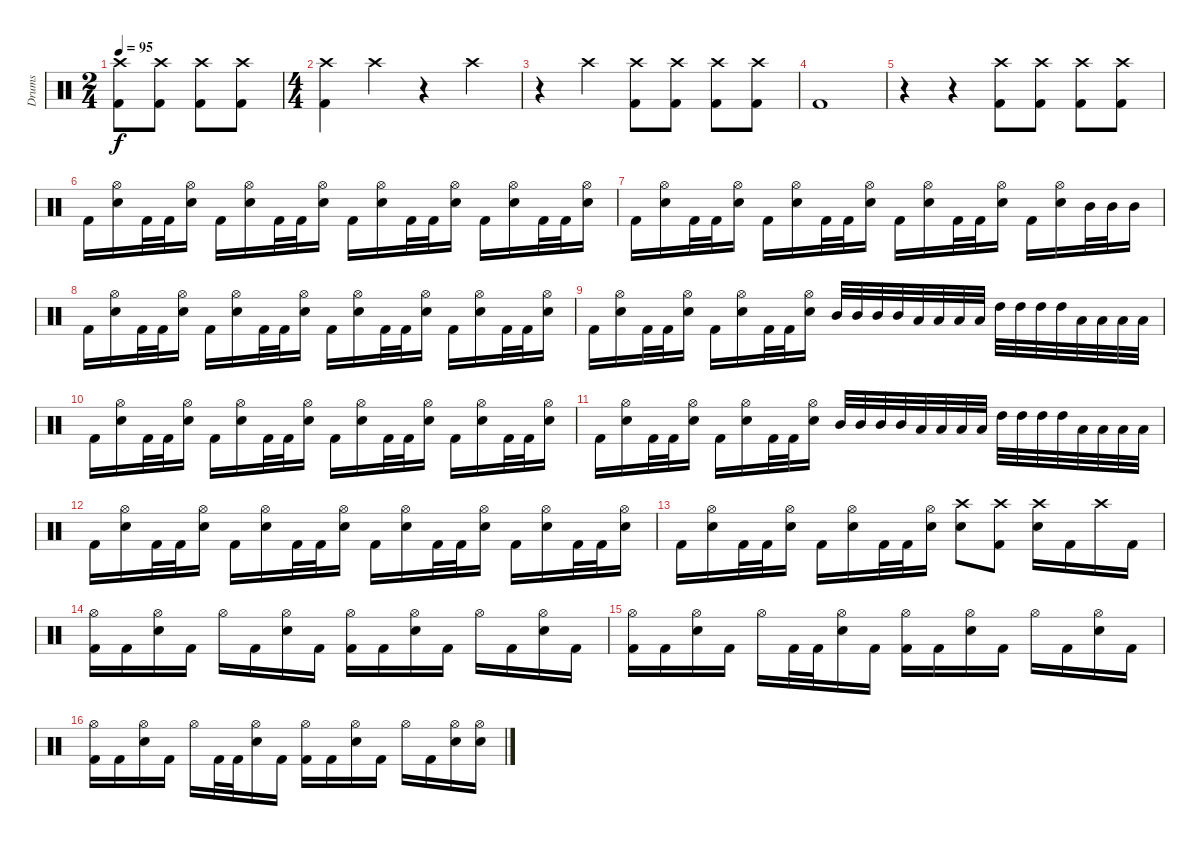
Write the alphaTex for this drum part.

\track ("Drums" "Drums") {instrument percussion}
\staff {score}
\articulation defaults
\ts (2 4)
\tempo 95
\clef neutral
\ks c
("Crash high (hit)" "Kick (hit) 2").8{dy f} ("Crash high (hit)" "Kick (hit) 2").8 ("Crash high (hit)" "Kick (hit) 2").8 ("Crash high (hit)" "Kick (hit) 2").8 |
\ts (4 4)
("Crash high (hit)" "Kick (hit) 2").4 "Crash high (hit)".4 r.4 "Crash high (hit)".4 |
r.4 "Crash high (hit)".4 ("Crash high (hit)" "Kick (hit) 2").8 ("Crash high (hit)" "Kick (hit) 2").8 ("Crash high (hit)" "Kick (hit) 2").8 ("Crash high (hit)" "Kick (hit) 2").8 |
"Kick (hit) 2".1 |
r.4 r.4 ("Crash high (hit)" "Kick (hit) 2").8 ("Crash high (hit)" "Kick (hit) 2").8 ("Crash high (hit)" "Kick (hit) 2").8 ("Crash high (hit)" "Kick (hit) 2").8 |
"Kick (hit) 2".16 ("Hi-Hat (open)" "Electric Snare (hit)").16 "Kick (hit) 2".32 "Kick (hit) 2".32 ("Hi-Hat (open)" "Electric Snare (hit)").16 "Kick (hit) 2".16 ("Hi-Hat (open)" "Electric Snare (hit)").16 "Kick (hit) 2".32 "Kick (hit) 2".32 ("Hi-Hat (open)" "Electric Snare (hit)").16 "Kick (hit) 2".16 ("Hi-Hat (open)" "Electric Snare (hit)").16 "Kick (hit) 2".32 "Kick (hit) 2".32 ("Hi-Hat (open)" "Electric Snare (hit)").16 "Kick (hit) 2".16 ("Hi-Hat (open)" "Electric Snare (hit)").16 "Kick (hit) 2".32 "Kick (hit) 2".32 ("Hi-Hat (open)" "Electric Snare (hit)").16 |
"Kick (hit) 2".16 ("Hi-Hat (open)" "Electric Snare (hit)").16 "Kick (hit) 2".32 "Kick (hit) 2".32 ("Hi-Hat (open)" "Electric Snare (hit)").16 "Kick (hit) 2".16 ("Hi-Hat (open)" "Electric Snare (hit)").16 "Kick (hit) 2".32 "Kick (hit) 2".32 ("Hi-Hat (open)" "Electric Snare (hit)").16 "Kick (hit) 2".16 ("Hi-Hat (open)" "Electric Snare (hit)").16 "Kick (hit) 2".32 "Kick (hit) 2".32 ("Hi-Hat (open)" "Electric Snare (hit)").16 "Kick (hit) 2".16 ("Hi-Hat (open)" "Electric Snare (hit)").16 "Mid Tom (hit)".32 "Mid Tom (hit)".32 "Mid Tom (hit)".16 |
"Kick (hit) 2".16 ("Hi-Hat (open)" "Electric Snare (hit)").16 "Kick (hit) 2".32 "Kick (hit) 2".32 ("Hi-Hat (open)" "Electric Snare (hit)").16 "Kick (hit) 2".16 ("Hi-Hat (open)" "Electric Snare (hit)").16 "Kick (hit) 2".32 "Kick (hit) 2".32 ("Hi-Hat (open)" "Electric Snare (hit)").16 "Kick (hit) 2".16 ("Hi-Hat (open)" "Electric Snare (hit)").16 "Kick (hit) 2".32 "Kick (hit) 2".32 ("Hi-Hat (open)" "Electric Snare (hit)").16 "Kick (hit) 2".16 ("Hi-Hat (open)" "Electric Snare (hit)").16 "Kick (hit) 2".32 "Kick (hit) 2".32 ("Hi-Hat (open)" "Electric Snare (hit)").16 |
"Kick (hit) 2".16 ("Hi-Hat (open)" "Electric Snare (hit)").16 "Kick (hit) 2".32 "Kick (hit) 2".32 ("Hi-Hat (open)" "Electric Snare (hit)").16 "Kick (hit) 2".16 ("Hi-Hat (open)" "Electric Snare (hit)").16 "Kick (hit) 2".32 "Kick (hit) 2".32 ("Hi-Hat (open)" "Electric Snare (hit)").16 "Mid Tom (hit)".32 "Mid Tom (hit)".32 "Mid Tom (hit)".32 "Mid Tom (hit)".32 "Low Tom (hit)".32 "Low Tom (hit)".32 "Low Tom (hit)".32 "Low Tom (hit)".32 "High Tom (hit)".32 "High Tom (hit)".32 "High Tom (hit)".32 "High Tom (hit)".32 "Low Tom (hit)".32 "Low Tom (hit)".32 "Low Tom (hit)".32 "Low Tom (hit)".32 |
"Kick (hit) 2".16 ("Hi-Hat (open)" "Electric Snare (hit)").16 "Kick (hit) 2".32 "Kick (hit) 2".32 ("Hi-Hat (open)" "Electric Snare (hit)").16 "Kick (hit) 2".16 ("Hi-Hat (open)" "Electric Snare (hit)").16 "Kick (hit) 2".32 "Kick (hit) 2".32 ("Hi-Hat (open)" "Electric Snare (hit)").16 "Kick (hit) 2".16 ("Hi-Hat (open)" "Electric Snare (hit)").16 "Kick (hit) 2".32 "Kick (hit) 2".32 ("Hi-Hat (open)" "Electric Snare (hit)").16 "Kick (hit) 2".16 ("Hi-Hat (open)" "Electric Snare (hit)").16 "Kick (hit) 2".32 "Kick (hit) 2".32 ("Hi-Hat (open)" "Electric Snare (hit)").16 |
"Kick (hit) 2".16 ("Hi-Hat (open)" "Electric Snare (hit)").16 "Kick (hit) 2".32 "Kick (hit) 2".32 ("Hi-Hat (open)" "Electric Snare (hit)").16 "Kick (hit) 2".16 ("Hi-Hat (open)" "Electric Snare (hit)").16 "Kick (hit) 2".32 "Kick (hit) 2".32 ("Hi-Hat (open)" "Electric Snare (hit)").16 "Mid Tom (hit)".32 "Mid Tom (hit)".32 "Mid Tom (hit)".32 "Mid Tom (hit)".32 "Low Tom (hit)".32 "Low Tom (hit)".32 "Low Tom (hit)".32 "Low Tom (hit)".32 "High Tom (hit)".32 "High Tom (hit)".32 "High Tom (hit)".32 "High Tom (hit)".32 "Low Tom (hit)".32 "Low Tom (hit)".32 "Low Tom (hit)".32 "Low Tom (hit)".32 |
"Kick (hit) 2".16 ("Hi-Hat (open)" "Electric Snare (hit)").16 "Kick (hit) 2".32 "Kick (hit) 2".32 ("Hi-Hat (open)" "Electric Snare (hit)").16 "Kick (hit) 2".16 ("Hi-Hat (open)" "Electric Snare (hit)").16 "Kick (hit) 2".32 "Kick (hit) 2".32 ("Hi-Hat (open)" "Electric Snare (hit)").16 "Kick (hit) 2".16 ("Hi-Hat (open)" "Electric Snare (hit)").16 "Kick (hit) 2".32 "Kick (hit) 2".32 ("Hi-Hat (open)" "Electric Snare (hit)").16 "Kick (hit) 2".16 ("Hi-Hat (open)" "Electric Snare (hit)").16 "Kick (hit) 2".32 "Kick (hit) 2".32 ("Hi-Hat (open)" "Electric Snare (hit)").16 |
"Kick (hit) 2".16 ("Hi-Hat (open)" "Electric Snare (hit)").16 "Kick (hit) 2".32 "Kick (hit) 2".32 ("Hi-Hat (open)" "Electric Snare (hit)").16 "Kick (hit) 2".16 ("Hi-Hat (open)" "Electric Snare (hit)").16 "Kick (hit) 2".32 "Kick (hit) 2".32 ("Hi-Hat (open)" "Electric Snare (hit)").16 ("Crash high (hit)" "Electric Snare (hit)").8 ("Crash high (hit)" "Kick (hit) 2").8 ("Crash high (hit)" "Electric Snare (hit)").16 "Kick (hit) 2".16 "Crash high (hit)".16 "Kick (hit) 2".16 |
("Hi-Hat (open)" "Kick (hit) 2").16 "Kick (hit) 2".16 ("Hi-Hat (open)" "Electric Snare (hit)").16 "Kick (hit) 2".16 "Hi-Hat (open)".16 "Kick (hit) 2".16 ("Hi-Hat (open)" "Electric Snare (hit)").16 "Kick (hit) 2".16 ("Hi-Hat (open)" "Kick (hit) 2").16 "Kick (hit) 2".16 ("Hi-Hat (open)" "Electric Snare (hit)").16 "Kick (hit) 2".16 "Hi-Hat (open)".16 "Kick (hit) 2".16 ("Hi-Hat (open)" "Electric Snare (hit)").16 "Kick (hit) 2".16 |
("Hi-Hat (open)" "Kick (hit) 2").16 "Kick (hit) 2".16 ("Hi-Hat (open)" "Electric Snare (hit)").16 "Kick (hit) 2".16 "Hi-Hat (open)".16 "Kick (hit) 2".32 "Kick (hit) 2".32 ("Hi-Hat (open)" "Electric Snare (hit)").16 "Kick (hit) 2".16 ("Hi-Hat (open)" "Kick (hit) 2").16 "Kick (hit) 2".16 ("Hi-Hat (open)" "Electric Snare (hit)").16 "Kick (hit) 2".16 "Hi-Hat (open)".16 "Kick (hit) 2".16 ("Hi-Hat (open)" "Electric Snare (hit)").16 "Kick (hit) 2".16 |
("Hi-Hat (open)" "Kick (hit) 2").16 "Kick (hit) 2".16 ("Hi-Hat (open)" "Electric Snare (hit)").16 "Kick (hit) 2".16 "Hi-Hat (open)".16 "Kick (hit) 2".32 "Kick (hit) 2".32 ("Hi-Hat (open)" "Electric Snare (hit)").16 "Kick (hit) 2".16 ("Hi-Hat (open)" "Kick (hit) 2").16 "Kick (hit) 2".16 ("Hi-Hat (open)" "Electric Snare (hit)").16 "Kick (hit) 2".16 "Hi-Hat (open)".16 "Kick (hit) 2".16 ("Hi-Hat (open)" "Electric Snare (hit)").16 ("Hi-Hat (open)" "Electric Snare (hit)").16
